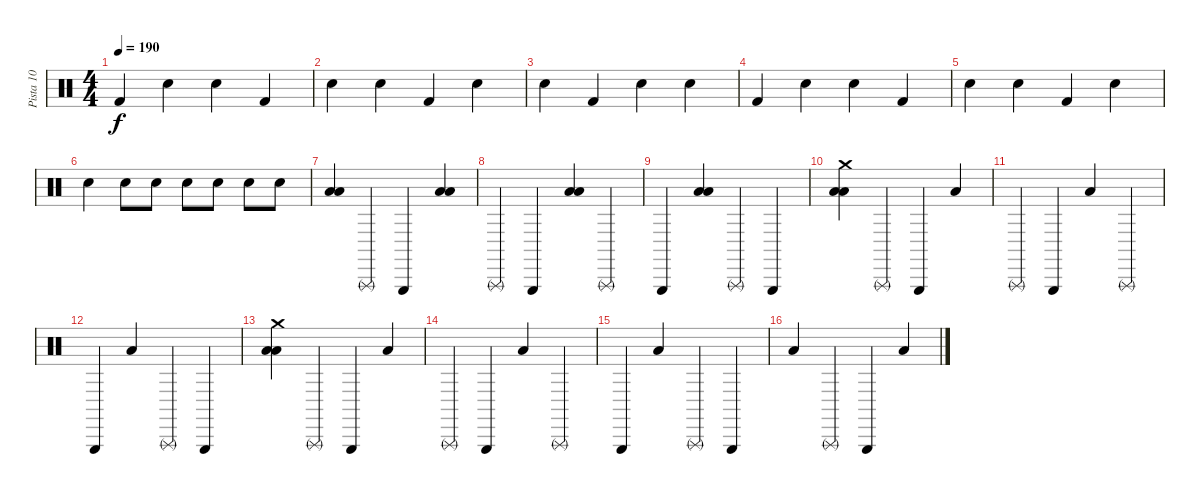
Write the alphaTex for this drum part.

\track ("Pista 10" "Pista 10") {instrument percussion}
\staff {score}
\articulation defaults
\ts (4 4)
\tempo 190
\clef neutral
\ks c "Kick (hit) 2".4{dy f} "Snare (hit) 2".4 "Snare (hit) 2".4 "Kick (hit) 2".4
|
"Snare (hit) 2".4 "Snare (hit) 2".4 "Kick (hit) 2".4 "Snare (hit) 2".4 |
"Snare (hit) 2".4 "Kick (hit) 2".4 "Snare (hit) 2".4 "Snare (hit) 2".4 |
"Kick (hit) 2".4 "Snare (hit) 2".4 "Snare (hit) 2".4 "Kick (hit) 2".4 |
"Snare (hit) 2".4 "Snare (hit) 2".4 "Kick (hit) 2".4 "Snare (hit) 2".4 |
"Snare (hit) 2".4 "Snare (hit) 2".8 "Snare (hit) 2".8 "Snare (hit) 2".8 "Snare (hit) 2".8 "Snare (hit) 2".8 "Snare (hit) 2".8 |
("Low Floor Tom (hit)" "Low Floor Tom (hit)").4 "Triangle (rnute)".4 "Triangle (hit)".4 ("Low Floor Tom (hit)" "Low Floor Tom (hit)").4 |
"Triangle (rnute)".4 "Triangle (hit)".4 ("Low Floor Tom (hit)" "Low Floor Tom (hit)").4 "Triangle (rnute)".4 |
"Triangle (hit)".4 ("Low Floor Tom (hit)" "Low Floor Tom (hit)").4 "Triangle (rnute)".4 "Triangle (hit)".4 |
("Low Floor Tom (hit)" "Low Floor Tom (hit)" "Crash medium (hit)").4 "Triangle (rnute)".4 "Triangle (hit)".4 "Low Floor Tom (hit)".4 |
"Triangle (rnute)".4 "Triangle (hit)".4 "Low Floor Tom (hit)".4 "Triangle (rnute)".4 |
"Triangle (hit)".4 "Low Floor Tom (hit)".4 "Triangle (rnute)".4 "Triangle (hit)".4 |
("Low Floor Tom (hit)" "Low Floor Tom (hit)" "Crash medium (hit)").4 "Triangle (rnute)".4 "Triangle (hit)".4 "Low Floor Tom (hit)".4 |
"Triangle (rnute)".4 "Triangle (hit)".4 "Low Floor Tom (hit)".4 "Triangle (rnute)".4 |
"Triangle (hit)".4 "Low Floor Tom (hit)".4 "Triangle (rnute)".4 "Triangle (hit)".4 |
"Low Floor Tom (hit)".4 "Triangle (rnute)".4 "Triangle (hit)".4 "Low Floor Tom (hit)".4
